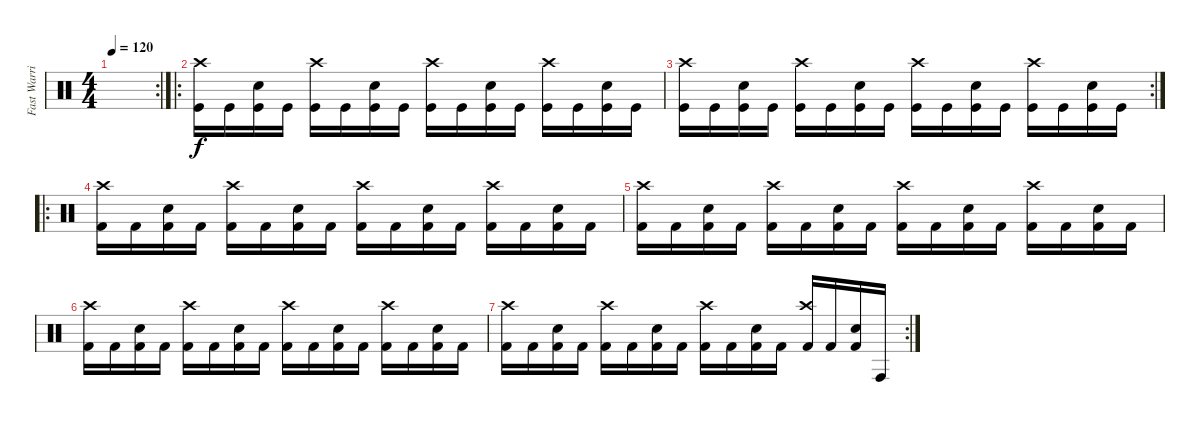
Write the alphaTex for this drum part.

\track ("Fast Warrior" "Fast Warri") {instrument percussion}
\staff {score}
\articulation defaults
\rc 2
\ts (4 4)
\tempo 120
\clef neutral
\ks c
|
\ro
("Crash high (hit)" "Kick (hit)").16 "Kick (hit)".16 ("Electric Snare (hit)" "Kick (hit)").16 "Kick (hit)".16 ("Crash high (hit)" "Kick (hit)").16 "Kick (hit)".16 ("Electric Snare (hit)" "Kick (hit)").16 "Kick (hit)".16 ("Crash high (hit)" "Kick (hit)").16 "Kick (hit)".16 ("Electric Snare (hit)" "Kick (hit)").16 "Kick (hit)".16 ("Crash high (hit)" "Kick (hit)").16 "Kick (hit)".16 ("Electric Snare (hit)" "Kick (hit)").16 "Kick (hit)".16 |
\rc 2
("Crash high (hit)" "Kick (hit)").16 "Kick (hit)".16 ("Electric Snare (hit)" "Kick (hit)").16 "Kick (hit)".16 ("Crash high (hit)" "Kick (hit)").16 "Kick (hit)".16 ("Electric Snare (hit)" "Kick (hit)").16 "Kick (hit)".16 ("Crash high (hit)" "Kick (hit)").16 "Kick (hit)".16 ("Electric Snare (hit)" "Kick (hit)").16 "Kick (hit)".16 ("Crash high (hit)" "Kick (hit)").16 "Kick (hit)".16 ("Electric Snare (hit)" "Kick (hit)").16 "Kick (hit)".16 |
\ro
("Crash high (hit)" "Kick (hit) 2").16 "Kick (hit) 2".16 ("Electric Snare (hit)" "Kick (hit) 2").16 "Kick (hit) 2".16 ("Crash high (hit)" "Kick (hit) 2").16 "Kick (hit) 2".16 ("Electric Snare (hit)" "Kick (hit) 2").16 "Kick (hit) 2".16 ("Crash high (hit)" "Kick (hit) 2").16 "Kick (hit) 2".16 ("Electric Snare (hit)" "Kick (hit) 2").16 "Kick (hit) 2".16 ("Crash high (hit)" "Kick (hit) 2").16 "Kick (hit) 2".16 ("Electric Snare (hit)" "Kick (hit) 2").16 "Kick (hit) 2".16 |
("Crash high (hit)" "Kick (hit) 2").16 "Kick (hit) 2".16 ("Electric Snare (hit)" "Kick (hit) 2").16 "Kick (hit) 2".16 ("Crash high (hit)" "Kick (hit) 2").16 "Kick (hit) 2".16 ("Electric Snare (hit)" "Kick (hit) 2").16 "Kick (hit) 2".16 ("Crash high (hit)" "Kick (hit) 2").16 "Kick (hit) 2".16 ("Electric Snare (hit)" "Kick (hit) 2").16 "Kick (hit) 2".16 ("Crash high (hit)" "Kick (hit) 2").16 "Kick (hit) 2".16 ("Electric Snare (hit)" "Kick (hit) 2").16 "Kick (hit) 2".16 |
("Crash high (hit)" "Kick (hit) 2").16 "Kick (hit) 2".16 ("Electric Snare (hit)" "Kick (hit) 2").16 "Kick (hit) 2".16 ("Crash high (hit)" "Kick (hit) 2").16 "Kick (hit) 2".16 ("Electric Snare (hit)" "Kick (hit) 2").16 "Kick (hit) 2".16 ("Crash high (hit)" "Kick (hit) 2").16 "Kick (hit) 2".16 ("Electric Snare (hit)" "Kick (hit) 2").16 "Kick (hit) 2".16 ("Crash high (hit)" "Kick (hit) 2").16 "Kick (hit) 2".16 ("Electric Snare (hit)" "Kick (hit) 2").16 "Kick (hit) 2".16 |
\rc 2
("Crash high (hit)" "Kick (hit) 2").16 "Kick (hit) 2".16 ("Electric Snare (hit)" "Kick (hit) 2").16 "Kick (hit) 2".16 ("Crash high (hit)" "Kick (hit) 2").16 "Kick (hit) 2".16 ("Electric Snare (hit)" "Kick (hit) 2").16 "Kick (hit) 2".16 ("Crash high (hit)" "Kick (hit) 2").16 "Kick (hit) 2".16 ("Electric Snare (hit)" "Kick (hit) 2").16 "Kick (hit) 2".16 ("Crash high (hit)" "Kick (hit) 2").16 "Kick (hit) 2".16 ("Electric Snare (hit)" "Kick (hit) 2").16 "Conga high (hit)".16
